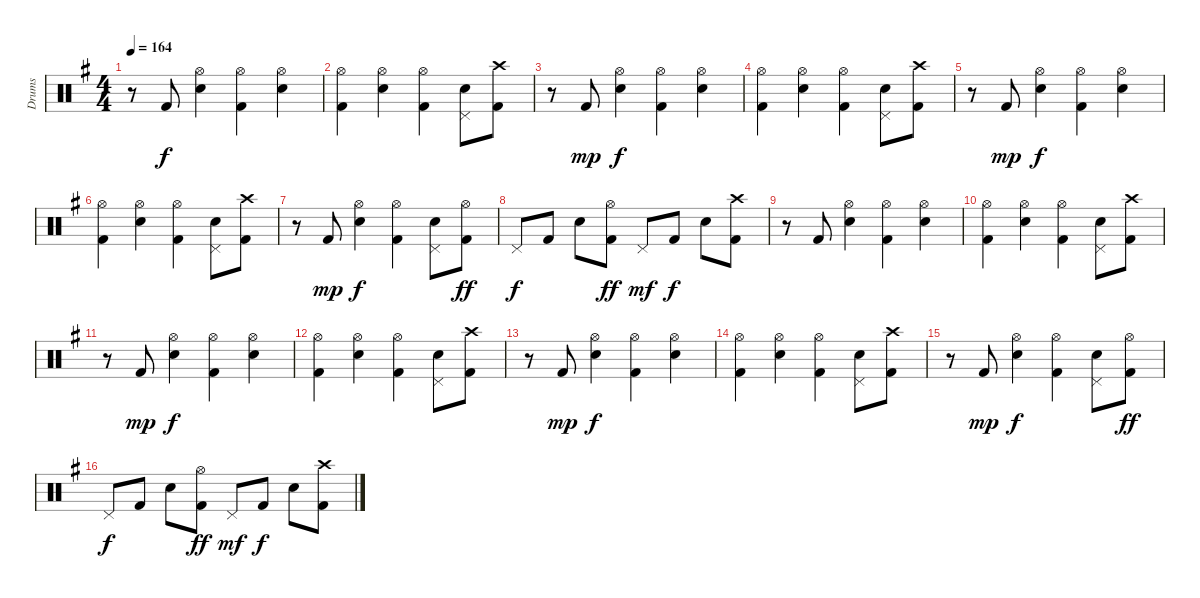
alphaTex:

\track ("Drums" "Drums") {instrument percussion}
\staff
\articulation defaults
\ts (4 4)
\tempo 164
\clef neutral
\ks g
r.8{dy f} "Kick (hit) 2".8 ("Hi-Hat (open)" "Snare (hit) 2").4 ("Hi-Hat (open)" "Kick (hit) 2").4 ("Hi-Hat (open)" "Snare (hit) 2").4 |
("Hi-Hat (open)" "Kick (hit) 2").4 ("Hi-Hat (open)" "Snare (hit) 2").4 ("Hi-Hat (open)" "Kick (hit) 2").4 ("Pedal Hi-Hat (hit)" "Snare (hit) 2").8 ("Crash high (hit)" "Kick (hit) 2").8 |
r.8 "Kick (hit) 2".8{dy mp} ("Hi-Hat (open)" "Snare (hit) 2").4{dy f} ("Hi-Hat (open)" "Kick (hit) 2").4 ("Hi-Hat (open)" "Snare (hit) 2").4 |
("Hi-Hat (open)" "Kick (hit) 2").4 ("Hi-Hat (open)" "Snare (hit) 2").4 ("Hi-Hat (open)" "Kick (hit) 2").4 ("Pedal Hi-Hat (hit)" "Snare (hit) 2").8 ("Crash high (hit)" "Kick (hit) 2").8 |
r.8 "Kick (hit) 2".8{dy mp} ("Hi-Hat (open)" "Snare (hit) 2").4{dy f} ("Hi-Hat (open)" "Kick (hit) 2").4 ("Hi-Hat (open)" "Snare (hit) 2").4 |
("Hi-Hat (open)" "Kick (hit) 2").4 ("Hi-Hat (open)" "Snare (hit) 2").4 ("Hi-Hat (open)" "Kick (hit) 2").4 ("Pedal Hi-Hat (hit)" "Snare (hit) 2").8 ("Crash high (hit)" "Kick (hit) 2").8 |
r.8 "Kick (hit) 2".8{dy mp} ("Hi-Hat (open)" "Snare (hit) 2").4{dy f} ("Hi-Hat (open)" "Kick (hit) 2").4 ("Pedal Hi-Hat (hit)" "Snare (hit) 2").8 ("Hi-Hat (open)" "Kick (hit) 2").8{dy ff} |
"Pedal Hi-Hat (hit)".8{dy f} "Kick (hit) 2".8 "Snare (hit) 2".8 ("Hi-Hat (open)" "Kick (hit) 2").8{dy ff} "Pedal Hi-Hat (hit)".8{dy mf} "Kick (hit) 2".8{dy f} "Snare (hit) 2".8 ("Crash high (hit)" "Kick (hit) 2").8 |
r.8 "Kick (hit) 2".8 ("Hi-Hat (open)" "Snare (hit) 2").4 ("Hi-Hat (open)" "Kick (hit) 2").4 ("Hi-Hat (open)" "Snare (hit) 2").4 |
("Hi-Hat (open)" "Kick (hit) 2").4 ("Hi-Hat (open)" "Snare (hit) 2").4 ("Hi-Hat (open)" "Kick (hit) 2").4 ("Pedal Hi-Hat (hit)" "Snare (hit) 2").8 ("Crash high (hit)" "Kick (hit) 2").8 |
r.8 "Kick (hit) 2".8{dy mp} ("Hi-Hat (open)" "Snare (hit) 2").4{dy f} ("Hi-Hat (open)" "Kick (hit) 2").4 ("Hi-Hat (open)" "Snare (hit) 2").4 |
("Hi-Hat (open)" "Kick (hit) 2").4 ("Hi-Hat (open)" "Snare (hit) 2").4 ("Hi-Hat (open)" "Kick (hit) 2").4 ("Pedal Hi-Hat (hit)" "Snare (hit) 2").8 ("Crash high (hit)" "Kick (hit) 2").8 |
r.8 "Kick (hit) 2".8{dy mp} ("Hi-Hat (open)" "Snare (hit) 2").4{dy f} ("Hi-Hat (open)" "Kick (hit) 2").4 ("Hi-Hat (open)" "Snare (hit) 2").4 |
("Hi-Hat (open)" "Kick (hit) 2").4 ("Hi-Hat (open)" "Snare (hit) 2").4 ("Hi-Hat (open)" "Kick (hit) 2").4 ("Pedal Hi-Hat (hit)" "Snare (hit) 2").8 ("Crash high (hit)" "Kick (hit) 2").8 |
r.8 "Kick (hit) 2".8{dy mp} ("Hi-Hat (open)" "Snare (hit) 2").4{dy f} ("Hi-Hat (open)" "Kick (hit) 2").4 ("Pedal Hi-Hat (hit)" "Snare (hit) 2").8 ("Hi-Hat (open)" "Kick (hit) 2").8{dy ff} |
"Pedal Hi-Hat (hit)".8{dy f} "Kick (hit) 2".8 "Snare (hit) 2".8 ("Hi-Hat (open)" "Kick (hit) 2").8{dy ff} "Pedal Hi-Hat (hit)".8{dy mf} "Kick (hit) 2".8{dy f} "Snare (hit) 2".8 ("Crash high (hit)" "Kick (hit) 2").8
